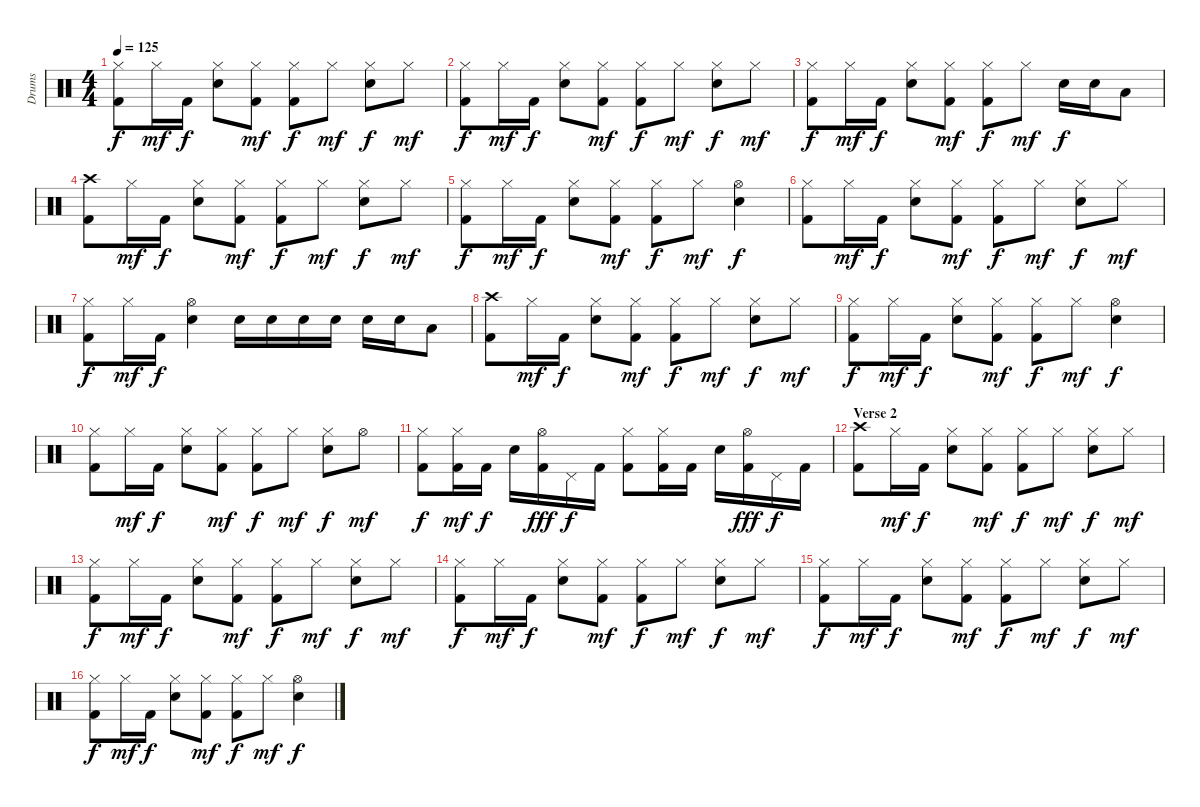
\track ("Drums" "Drums") {instrument percussion}
\staff {score}
\articulation defaults
\ts (4 4)
\tempo 125
\clef neutral
\ks c
("Hi-Hat (closed)" "Kick (hit) 2").8{dy f} "Hi-Hat (closed)".16{dy mf} "Kick (hit) 2".16{dy f} ("Hi-Hat (closed)" "Electric Snare (hit)").8 ("Hi-Hat (closed)" "Kick (hit) 2").8{dy mf} ("Hi-Hat (closed)" "Kick (hit) 2").8{dy f} "Hi-Hat (closed)".8{dy mf} ("Hi-Hat (closed)" "Electric Snare (hit)").8{dy f} "Hi-Hat (closed)".8{dy mf} |
("Hi-Hat (closed)" "Kick (hit) 2").8{dy f} "Hi-Hat (closed)".16{dy mf} "Kick (hit) 2".16{dy f} ("Hi-Hat (closed)" "Electric Snare (hit)").8 ("Hi-Hat (closed)" "Kick (hit) 2").8{dy mf} ("Hi-Hat (closed)" "Kick (hit) 2").8{dy f} "Hi-Hat (closed)".8{dy mf} ("Hi-Hat (closed)" "Electric Snare (hit)").8{dy f} "Hi-Hat (closed)".8{dy mf} |
("Hi-Hat (closed)" "Kick (hit) 2").8{dy f} "Hi-Hat (closed)".16{dy mf} "Kick (hit) 2".16{dy f} ("Hi-Hat (closed)" "Electric Snare (hit)").8 ("Hi-Hat (closed)" "Kick (hit) 2").8{dy mf} ("Hi-Hat (closed)" "Kick (hit) 2").8{dy f} "Hi-Hat (closed)".8{dy mf} "Electric Snare (hit)".16{dy f} "Electric Snare (hit)".16 "Low Tom (hit)".8 |
("Crash high (hit)" "Kick (hit) 2").8 "Hi-Hat (closed)".16{dy mf} "Kick (hit) 2".16{dy f} ("Hi-Hat (closed)" "Electric Snare (hit)").8 ("Hi-Hat (closed)" "Kick (hit) 2").8{dy mf} ("Hi-Hat (closed)" "Kick (hit) 2").8{dy f} "Hi-Hat (closed)".8{dy mf} ("Hi-Hat (closed)" "Electric Snare (hit)").8{dy f} "Hi-Hat (closed)".8{dy mf} |
("Hi-Hat (closed)" "Kick (hit) 2").8{dy f} "Hi-Hat (closed)".16{dy mf} "Kick (hit) 2".16{dy f} ("Hi-Hat (closed)" "Electric Snare (hit)").8 ("Hi-Hat (closed)" "Kick (hit) 2").8{dy mf} ("Hi-Hat (closed)" "Kick (hit) 2").8{dy f} "Hi-Hat (closed)".8{dy mf} ("Hi-Hat (open)" "Electric Snare (hit)").4{dy f} |
("Hi-Hat (closed)" "Kick (hit) 2").8 "Hi-Hat (closed)".16{dy mf} "Kick (hit) 2".16{dy f} ("Hi-Hat (closed)" "Electric Snare (hit)").8 ("Hi-Hat (closed)" "Kick (hit) 2").8{dy mf} ("Hi-Hat (closed)" "Kick (hit) 2").8{dy f} "Hi-Hat (closed)".8{dy mf} ("Hi-Hat (closed)" "Electric Snare (hit)").8{dy f} "Hi-Hat (closed)".8{dy mf} |
("Hi-Hat (closed)" "Kick (hit) 2").8{dy f} "Hi-Hat (closed)".16{dy mf} "Kick (hit) 2".16{dy f} ("Hi-Hat (open)" "Electric Snare (hit)").4 "Electric Snare (hit)".16 "Electric Snare (hit)".16 "Electric Snare (hit)".16 "Electric Snare (hit)".16 "Electric Snare (hit)".16 "Electric Snare (hit)".16 "Low Tom (hit)".8 |
("Crash high (hit)" "Kick (hit) 2").8 "Hi-Hat (closed)".16{dy mf} "Kick (hit) 2".16{dy f} ("Hi-Hat (closed)" "Electric Snare (hit)").8 ("Hi-Hat (closed)" "Kick (hit) 2").8{dy mf} ("Hi-Hat (closed)" "Kick (hit) 2").8{dy f} "Hi-Hat (closed)".8{dy mf} ("Hi-Hat (closed)" "Electric Snare (hit)").8{dy f} "Hi-Hat (closed)".8{dy mf} |
("Hi-Hat (closed)" "Kick (hit) 2").8{dy f} "Hi-Hat (closed)".16{dy mf} "Kick (hit) 2".16{dy f} ("Hi-Hat (closed)" "Electric Snare (hit)").8 ("Hi-Hat (closed)" "Kick (hit) 2").8{dy mf} ("Hi-Hat (closed)" "Kick (hit) 2").8{dy f} "Hi-Hat (closed)".8{dy mf} ("Hi-Hat (open)" "Electric Snare (hit)").4{dy f} |
("Hi-Hat (closed)" "Kick (hit) 2").8 "Hi-Hat (closed)".16{dy mf} "Kick (hit) 2".16{dy f} ("Hi-Hat (closed)" "Electric Snare (hit)").8 ("Hi-Hat (closed)" "Kick (hit) 2").8{dy mf} ("Hi-Hat (closed)" "Kick (hit) 2").8{dy f} "Hi-Hat (closed)".8{dy mf} ("Hi-Hat (closed)" "Electric Snare (hit)").8{dy f} "Hi-Hat (open)".8{dy mf} |
("Hi-Hat (closed)" "Kick (hit) 2").8{dy f} ("Hi-Hat (closed)" "Kick (hit) 2").16{dy mf} "Kick (hit) 2".16{dy f} "Electric Snare (hit)".16 ("Hi-Hat (open)" "Kick (hit) 2").16{dy fff} "Pedal Hi-Hat (hit)".16{dy f} "Kick (hit) 2".16 ("Hi-Hat (closed)" "Kick (hit) 2").8 ("Hi-Hat (closed)" "Kick (hit) 2").16 "Kick (hit) 2".16 "Electric Snare (hit)".16 ("Hi-Hat (open)" "Kick (hit) 2").16{dy fff} "Pedal Hi-Hat (hit)".16{dy f} "Kick (hit) 2".16 |
\section ("" "Verse 2")
("Crash high (hit)" "Kick (hit) 2").8 "Hi-Hat (closed)".16{dy mf} "Kick (hit) 2".16{dy f} ("Hi-Hat (closed)" "Electric Snare (hit)").8 ("Hi-Hat (closed)" "Kick (hit) 2").8{dy mf} ("Hi-Hat (closed)" "Kick (hit) 2").8{dy f} "Hi-Hat (closed)".8{dy mf} ("Hi-Hat (closed)" "Electric Snare (hit)").8{dy f} "Hi-Hat (closed)".8{dy mf} |
("Hi-Hat (closed)" "Kick (hit) 2").8{dy f} "Hi-Hat (closed)".16{dy mf} "Kick (hit) 2".16{dy f} ("Hi-Hat (closed)" "Electric Snare (hit)").8 ("Hi-Hat (closed)" "Kick (hit) 2").8{dy mf} ("Hi-Hat (closed)" "Kick (hit) 2").8{dy f} "Hi-Hat (closed)".8{dy mf} ("Hi-Hat (closed)" "Electric Snare (hit)").8{dy f} "Hi-Hat (closed)".8{dy mf} |
("Hi-Hat (closed)" "Kick (hit) 2").8{dy f} "Hi-Hat (closed)".16{dy mf} "Kick (hit) 2".16{dy f} ("Hi-Hat (closed)" "Electric Snare (hit)").8 ("Hi-Hat (closed)" "Kick (hit) 2").8{dy mf} ("Hi-Hat (closed)" "Kick (hit) 2").8{dy f} "Hi-Hat (closed)".8{dy mf} ("Hi-Hat (closed)" "Electric Snare (hit)").8{dy f} "Hi-Hat (closed)".8{dy mf} |
("Hi-Hat (closed)" "Kick (hit) 2").8{dy f} "Hi-Hat (closed)".16{dy mf} "Kick (hit) 2".16{dy f} ("Hi-Hat (closed)" "Electric Snare (hit)").8 ("Hi-Hat (closed)" "Kick (hit) 2").8{dy mf} ("Hi-Hat (closed)" "Kick (hit) 2").8{dy f} "Hi-Hat (closed)".8{dy mf} ("Hi-Hat (closed)" "Electric Snare (hit)").8{dy f} "Hi-Hat (closed)".8{dy mf} |
("Hi-Hat (closed)" "Kick (hit) 2").8{dy f} "Hi-Hat (closed)".16{dy mf} "Kick (hit) 2".16{dy f} ("Hi-Hat (closed)" "Electric Snare (hit)").8 ("Hi-Hat (closed)" "Kick (hit) 2").8{dy mf} ("Hi-Hat (closed)" "Kick (hit) 2").8{dy f} "Hi-Hat (closed)".8{dy mf} ("Hi-Hat (open)" "Electric Snare (hit)").4{dy f}
